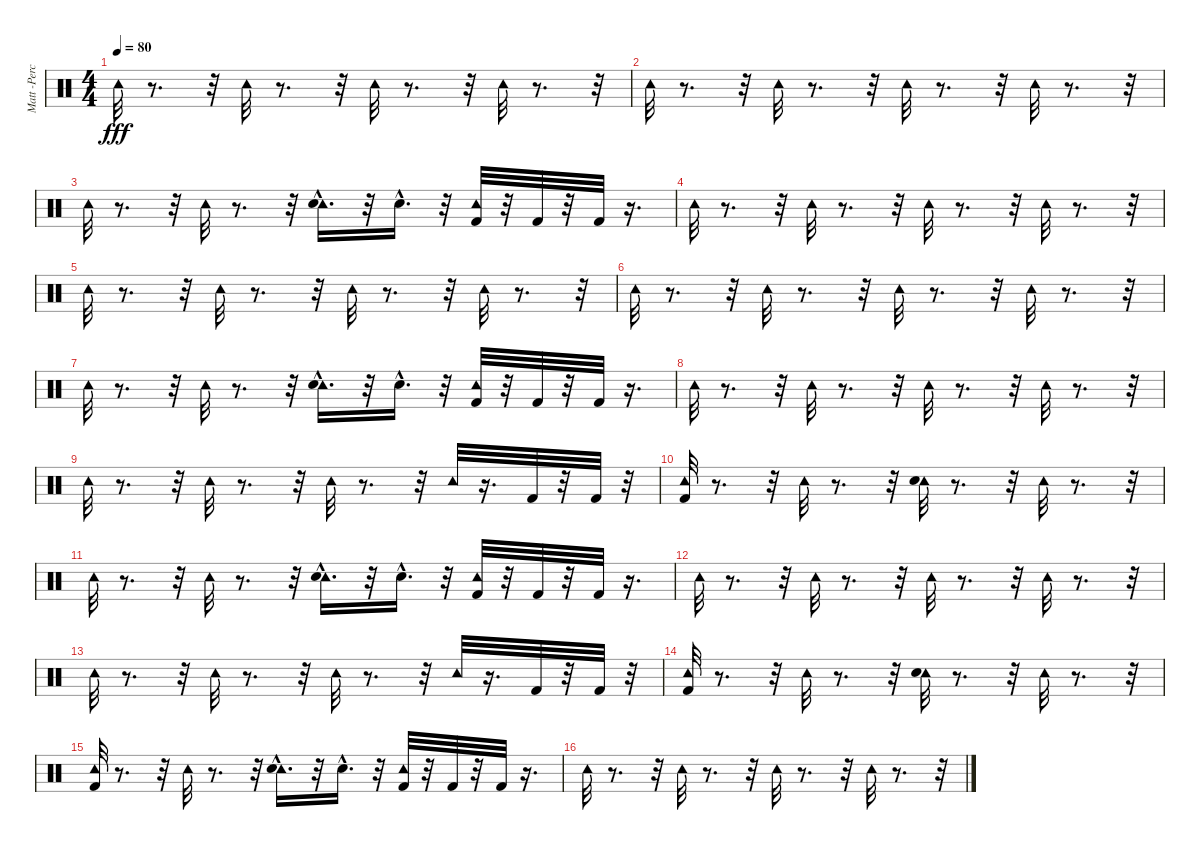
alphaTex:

\track ("Matt -Percussion-" "Matt -Perc") {instrument percussion}
\staff {score}
\articulation defaults
\ts (4 4)
\tempo 80
\clef neutral
\ks c "Tambourine (hit)".32{dy fff}
r.8{d} r.32 "Tambourine (hit)".32 r.8{d} r.32 "Tambourine (hit)".32 r.8{d} r.32 "Tambourine (hit)".32 r.8{d} r.32 |
"Tambourine (hit)".32 r.8{d} r.32 "Tambourine (hit)".32 r.8{d} r.32 "Tambourine (hit)".32 r.8{d} r.32 "Tambourine (hit)".32 r.8{d} r.32 |
"Tambourine (hit)".32 r.8{d} r.32 "Tambourine (hit)".32 r.8{d} r.32 ("Tambourine (hit)" "Snare (hit) 2"{hac}).16{d} r.32 "Snare (hit) 2"{hac}.16{d} r.32 ("Tambourine (hit)" "Kick (hit) 2").32 r.32 "Kick (hit) 2".32 r.32 "Kick (hit) 2".32 r.16{d} |
"Tambourine (hit)".32 r.8{d} r.32 "Tambourine (hit)".32 r.8{d} r.32 "Tambourine (hit)".32 r.8{d} r.32 "Tambourine (hit)".32 r.8{d} r.32 |
"Tambourine (hit)".32 r.8{d} r.32 "Tambourine (hit)".32 r.8{d} r.32 "Tambourine (hit)".32 r.8{d} r.32 "Tambourine (hit)".32 r.8{d} r.32 |
"Tambourine (hit)".32 r.8{d} r.32 "Tambourine (hit)".32 r.8{d} r.32 "Tambourine (hit)".32 r.8{d} r.32 "Tambourine (hit)".32 r.8{d} r.32 |
"Tambourine (hit)".32 r.8{d} r.32 "Tambourine (hit)".32 r.8{d} r.32 ("Tambourine (hit)" "Snare (hit) 2"{hac}).16{d} r.32 "Snare (hit) 2"{hac}.16{d} r.32 ("Tambourine (hit)" "Kick (hit) 2").32 r.32 "Kick (hit) 2".32 r.32 "Kick (hit) 2".32 r.16{d} |
"Tambourine (hit)".32 r.8{d} r.32 "Tambourine (hit)".32 r.8{d} r.32 "Tambourine (hit)".32 r.8{d} r.32 "Tambourine (hit)".32 r.8{d} r.32 |
"Tambourine (hit)".32 r.8{d} r.32 "Tambourine (hit)".32 r.8{d} r.32 "Tambourine (hit)".32 r.8{d} r.32 "Tambourine (hit)".32 r.16{d} "Kick (hit) 2".32 r.32 "Kick (hit) 2".32 r.32 |
("Tambourine (hit)" "Kick (hit) 2").32 r.8{d} r.32 "Tambourine (hit)".32 r.8{d} r.32 ("Tambourine (hit)" "Snare (hit) 2").32 r.8{d} r.32 "Tambourine (hit)".32 r.8{d} r.32 |
"Tambourine (hit)".32 r.8{d} r.32 "Tambourine (hit)".32 r.8{d} r.32 ("Tambourine (hit)" "Snare (hit) 2"{hac}).16{d} r.32 "Snare (hit) 2"{hac}.16{d} r.32 ("Tambourine (hit)" "Kick (hit) 2").32 r.32 "Kick (hit) 2".32 r.32 "Kick (hit) 2".32 r.16{d} |
"Tambourine (hit)".32 r.8{d} r.32 "Tambourine (hit)".32 r.8{d} r.32 "Tambourine (hit)".32 r.8{d} r.32 "Tambourine (hit)".32 r.8{d} r.32 |
"Tambourine (hit)".32 r.8{d} r.32 "Tambourine (hit)".32 r.8{d} r.32 "Tambourine (hit)".32 r.8{d} r.32 "Tambourine (hit)".32 r.16{d} "Kick (hit) 2".32 r.32 "Kick (hit) 2".32 r.32 |
("Tambourine (hit)" "Kick (hit) 2").32 r.8{d} r.32 "Tambourine (hit)".32 r.8{d} r.32 ("Tambourine (hit)" "Snare (hit) 2").32 r.8{d} r.32 "Tambourine (hit)".32 r.8{d} r.32 |
("Tambourine (hit)" "Kick (hit) 2").32 r.8{d} r.32 "Tambourine (hit)".32 r.8{d} r.32 ("Tambourine (hit)" "Snare (hit) 2"{hac}).16{d} r.32 "Snare (hit) 2"{hac}.16{d} r.32 ("Tambourine (hit)" "Kick (hit) 2").32 r.32 "Kick (hit) 2".32 r.32 "Kick (hit) 2".32 r.16{d} |
"Tambourine (hit)".32 r.8{d} r.32 "Tambourine (hit)".32 r.8{d} r.32 "Tambourine (hit)".32 r.8{d} r.32 "Tambourine (hit)".32 r.8{d} r.32
